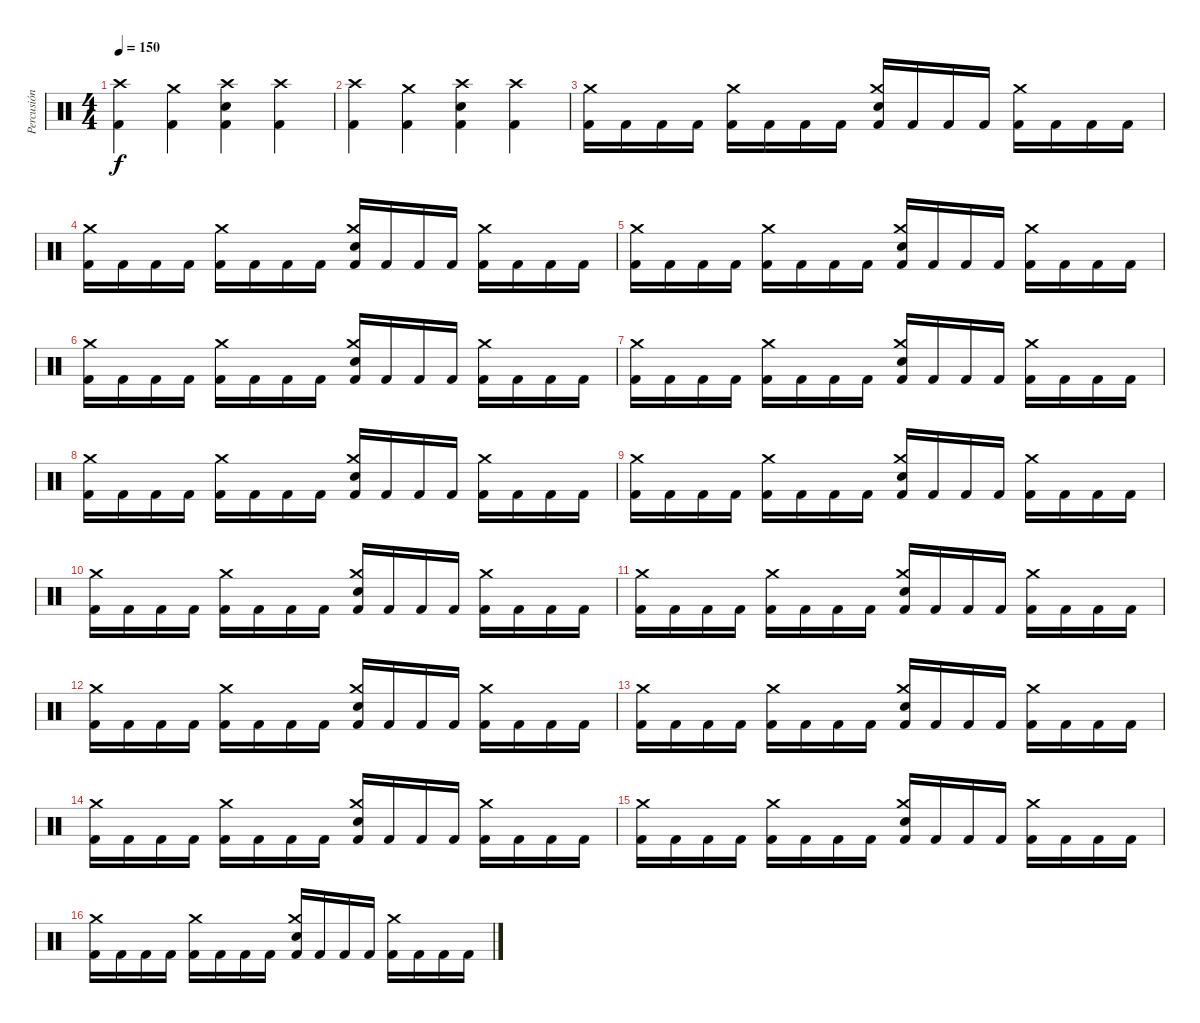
\track ("Percusión" "Percusión") {instrument percussion}
\staff {score}
\articulation defaults
\ts (4 4)
\tempo 150
\clef neutral
\ks c
("Crash high (hit)" "Kick (hit) 2").4{dy f} ("Crash medium (hit)" "Kick (hit) 2").4 ("Crash high (hit)" "Snare (hit) 2" "Kick (hit) 2").4 ("Crash high (hit)" "Kick (hit) 2").4 |
("Crash high (hit)" "Kick (hit) 2").4 ("Crash medium (hit)" "Kick (hit) 2").4 ("Crash high (hit)" "Snare (hit) 2" "Kick (hit) 2").4 ("Crash high (hit)" "Kick (hit) 2").4 |
("Crash medium (hit)" "Kick (hit) 2").16 "Kick (hit) 2".16 "Kick (hit) 2".16 "Kick (hit) 2".16 ("Crash medium (hit)" "Kick (hit) 2").16 "Kick (hit) 2".16 "Kick (hit) 2".16 "Kick (hit) 2".16 ("Snare (hit) 2" "Crash medium (hit)" "Kick (hit) 2").16 "Kick (hit) 2".16 "Kick (hit) 2".16 "Kick (hit) 2".16 ("Crash medium (hit)" "Kick (hit) 2").16 "Kick (hit) 2".16 "Kick (hit) 2".16 "Kick (hit) 2".16 |
("Crash medium (hit)" "Kick (hit) 2").16 "Kick (hit) 2".16 "Kick (hit) 2".16 "Kick (hit) 2".16 ("Crash medium (hit)" "Kick (hit) 2").16 "Kick (hit) 2".16 "Kick (hit) 2".16 "Kick (hit) 2".16 ("Snare (hit) 2" "Crash medium (hit)" "Kick (hit) 2").16 "Kick (hit) 2".16 "Kick (hit) 2".16 "Kick (hit) 2".16 ("Crash medium (hit)" "Kick (hit) 2").16 "Kick (hit) 2".16 "Kick (hit) 2".16 "Kick (hit) 2".16 |
("Crash medium (hit)" "Kick (hit) 2").16 "Kick (hit) 2".16 "Kick (hit) 2".16 "Kick (hit) 2".16 ("Crash medium (hit)" "Kick (hit) 2").16 "Kick (hit) 2".16 "Kick (hit) 2".16 "Kick (hit) 2".16 ("Snare (hit) 2" "Crash medium (hit)" "Kick (hit) 2").16 "Kick (hit) 2".16 "Kick (hit) 2".16 "Kick (hit) 2".16 ("Crash medium (hit)" "Kick (hit) 2").16 "Kick (hit) 2".16 "Kick (hit) 2".16 "Kick (hit) 2".16 |
("Crash medium (hit)" "Kick (hit) 2").16 "Kick (hit) 2".16 "Kick (hit) 2".16 "Kick (hit) 2".16 ("Crash medium (hit)" "Kick (hit) 2").16 "Kick (hit) 2".16 "Kick (hit) 2".16 "Kick (hit) 2".16 ("Snare (hit) 2" "Crash medium (hit)" "Kick (hit) 2").16 "Kick (hit) 2".16 "Kick (hit) 2".16 "Kick (hit) 2".16 ("Crash medium (hit)" "Kick (hit) 2").16 "Kick (hit) 2".16 "Kick (hit) 2".16 "Kick (hit) 2".16 |
("Crash medium (hit)" "Kick (hit) 2").16 "Kick (hit) 2".16 "Kick (hit) 2".16 "Kick (hit) 2".16 ("Crash medium (hit)" "Kick (hit) 2").16 "Kick (hit) 2".16 "Kick (hit) 2".16 "Kick (hit) 2".16 ("Snare (hit) 2" "Crash medium (hit)" "Kick (hit) 2").16 "Kick (hit) 2".16 "Kick (hit) 2".16 "Kick (hit) 2".16 ("Crash medium (hit)" "Kick (hit) 2").16 "Kick (hit) 2".16 "Kick (hit) 2".16 "Kick (hit) 2".16 |
("Crash medium (hit)" "Kick (hit) 2").16 "Kick (hit) 2".16 "Kick (hit) 2".16 "Kick (hit) 2".16 ("Crash medium (hit)" "Kick (hit) 2").16 "Kick (hit) 2".16 "Kick (hit) 2".16 "Kick (hit) 2".16 ("Snare (hit) 2" "Crash medium (hit)" "Kick (hit) 2").16 "Kick (hit) 2".16 "Kick (hit) 2".16 "Kick (hit) 2".16 ("Crash medium (hit)" "Kick (hit) 2").16 "Kick (hit) 2".16 "Kick (hit) 2".16 "Kick (hit) 2".16 |
("Crash medium (hit)" "Kick (hit) 2").16 "Kick (hit) 2".16 "Kick (hit) 2".16 "Kick (hit) 2".16 ("Crash medium (hit)" "Kick (hit) 2").16 "Kick (hit) 2".16 "Kick (hit) 2".16 "Kick (hit) 2".16 ("Snare (hit) 2" "Crash medium (hit)" "Kick (hit) 2").16 "Kick (hit) 2".16 "Kick (hit) 2".16 "Kick (hit) 2".16 ("Crash medium (hit)" "Kick (hit) 2").16 "Kick (hit) 2".16 "Kick (hit) 2".16 "Kick (hit) 2".16 |
("Crash medium (hit)" "Kick (hit) 2").16 "Kick (hit) 2".16 "Kick (hit) 2".16 "Kick (hit) 2".16 ("Crash medium (hit)" "Kick (hit) 2").16 "Kick (hit) 2".16 "Kick (hit) 2".16 "Kick (hit) 2".16 ("Snare (hit) 2" "Crash medium (hit)" "Kick (hit) 2").16 "Kick (hit) 2".16 "Kick (hit) 2".16 "Kick (hit) 2".16 ("Crash medium (hit)" "Kick (hit) 2").16 "Kick (hit) 2".16 "Kick (hit) 2".16 "Kick (hit) 2".16 |
("Crash medium (hit)" "Kick (hit) 2").16 "Kick (hit) 2".16 "Kick (hit) 2".16 "Kick (hit) 2".16 ("Crash medium (hit)" "Kick (hit) 2").16 "Kick (hit) 2".16 "Kick (hit) 2".16 "Kick (hit) 2".16 ("Snare (hit) 2" "Crash medium (hit)" "Kick (hit) 2").16 "Kick (hit) 2".16 "Kick (hit) 2".16 "Kick (hit) 2".16 ("Crash medium (hit)" "Kick (hit) 2").16 "Kick (hit) 2".16 "Kick (hit) 2".16 "Kick (hit) 2".16 |
("Crash medium (hit)" "Kick (hit) 2").16 "Kick (hit) 2".16 "Kick (hit) 2".16 "Kick (hit) 2".16 ("Crash medium (hit)" "Kick (hit) 2").16 "Kick (hit) 2".16 "Kick (hit) 2".16 "Kick (hit) 2".16 ("Snare (hit) 2" "Crash medium (hit)" "Kick (hit) 2").16 "Kick (hit) 2".16 "Kick (hit) 2".16 "Kick (hit) 2".16 ("Crash medium (hit)" "Kick (hit) 2").16 "Kick (hit) 2".16 "Kick (hit) 2".16 "Kick (hit) 2".16 |
("Crash medium (hit)" "Kick (hit) 2").16 "Kick (hit) 2".16 "Kick (hit) 2".16 "Kick (hit) 2".16 ("Crash medium (hit)" "Kick (hit) 2").16 "Kick (hit) 2".16 "Kick (hit) 2".16 "Kick (hit) 2".16 ("Snare (hit) 2" "Crash medium (hit)" "Kick (hit) 2").16 "Kick (hit) 2".16 "Kick (hit) 2".16 "Kick (hit) 2".16 ("Crash medium (hit)" "Kick (hit) 2").16 "Kick (hit) 2".16 "Kick (hit) 2".16 "Kick (hit) 2".16 |
("Crash medium (hit)" "Kick (hit) 2").16 "Kick (hit) 2".16 "Kick (hit) 2".16 "Kick (hit) 2".16 ("Crash medium (hit)" "Kick (hit) 2").16 "Kick (hit) 2".16 "Kick (hit) 2".16 "Kick (hit) 2".16 ("Snare (hit) 2" "Crash medium (hit)" "Kick (hit) 2").16 "Kick (hit) 2".16 "Kick (hit) 2".16 "Kick (hit) 2".16 ("Crash medium (hit)" "Kick (hit) 2").16 "Kick (hit) 2".16 "Kick (hit) 2".16 "Kick (hit) 2".16 |
("Crash medium (hit)" "Kick (hit) 2").16 "Kick (hit) 2".16 "Kick (hit) 2".16 "Kick (hit) 2".16 ("Crash medium (hit)" "Kick (hit) 2").16 "Kick (hit) 2".16 "Kick (hit) 2".16 "Kick (hit) 2".16 ("Snare (hit) 2" "Crash medium (hit)" "Kick (hit) 2").16 "Kick (hit) 2".16 "Kick (hit) 2".16 "Kick (hit) 2".16 ("Crash medium (hit)" "Kick (hit) 2").16 "Kick (hit) 2".16 "Kick (hit) 2".16 "Kick (hit) 2".16 |
("Crash medium (hit)" "Kick (hit) 2").16 "Kick (hit) 2".16 "Kick (hit) 2".16 "Kick (hit) 2".16 ("Crash medium (hit)" "Kick (hit) 2").16 "Kick (hit) 2".16 "Kick (hit) 2".16 "Kick (hit) 2".16 ("Snare (hit) 2" "Crash medium (hit)" "Kick (hit) 2").16 "Kick (hit) 2".16 "Kick (hit) 2".16 "Kick (hit) 2".16 ("Crash medium (hit)" "Kick (hit) 2").16 "Kick (hit) 2".16 "Kick (hit) 2".16 "Kick (hit) 2".16
